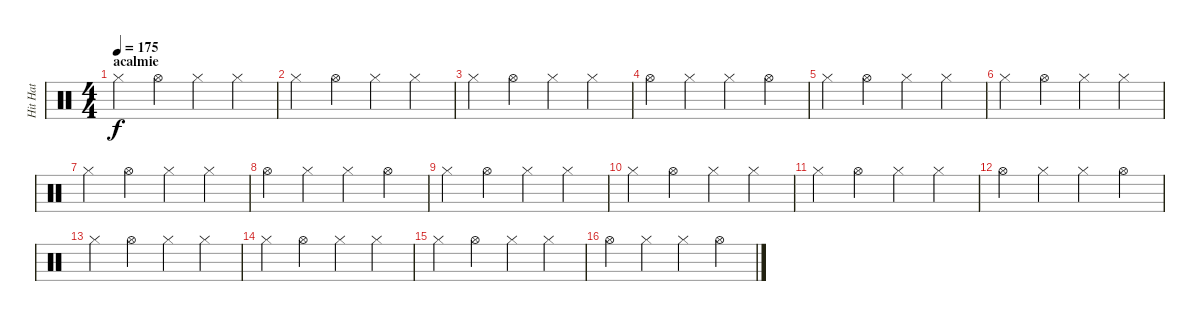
\track ("Hit Hat" "Hit Hat") {instrument percussion}
\staff {score}
\articulation defaults
\ts (4 4)
\section ("" "acalmie")
\tempo 175
\clef neutral
\ks c "Hi-Hat (closed)".4{dy f} "Hi-Hat (open)".4 "Hi-Hat (closed)".4 "Hi-Hat (closed)".4
|
"Hi-Hat (closed)".4 "Hi-Hat (open)".4 "Hi-Hat (closed)".4 "Hi-Hat (closed)".4 |
"Hi-Hat (closed)".4 "Hi-Hat (open)".4 "Hi-Hat (closed)".4 "Hi-Hat (closed)".4 |
"Hi-Hat (open)".4 "Hi-Hat (closed)".4 "Hi-Hat (closed)".4 "Hi-Hat (open)".4 |
"Hi-Hat (closed)".4 "Hi-Hat (open)".4 "Hi-Hat (closed)".4 "Hi-Hat (closed)".4 |
"Hi-Hat (closed)".4 "Hi-Hat (open)".4 "Hi-Hat (closed)".4 "Hi-Hat (closed)".4 |
"Hi-Hat (closed)".4 "Hi-Hat (open)".4 "Hi-Hat (closed)".4 "Hi-Hat (closed)".4 |
"Hi-Hat (open)".4 "Hi-Hat (closed)".4 "Hi-Hat (closed)".4 "Hi-Hat (open)".4 |
"Hi-Hat (closed)".4 "Hi-Hat (open)".4 "Hi-Hat (closed)".4 "Hi-Hat (closed)".4 |
"Hi-Hat (closed)".4 "Hi-Hat (open)".4 "Hi-Hat (closed)".4 "Hi-Hat (closed)".4 |
"Hi-Hat (closed)".4 "Hi-Hat (open)".4 "Hi-Hat (closed)".4 "Hi-Hat (closed)".4 |
"Hi-Hat (open)".4 "Hi-Hat (closed)".4 "Hi-Hat (closed)".4 "Hi-Hat (open)".4 |
"Hi-Hat (closed)".4 "Hi-Hat (open)".4 "Hi-Hat (closed)".4 "Hi-Hat (closed)".4 |
"Hi-Hat (closed)".4 "Hi-Hat (open)".4 "Hi-Hat (closed)".4 "Hi-Hat (closed)".4 |
"Hi-Hat (closed)".4 "Hi-Hat (open)".4 "Hi-Hat (closed)".4 "Hi-Hat (closed)".4 |
"Hi-Hat (open)".4 "Hi-Hat (closed)".4 "Hi-Hat (closed)".4 "Hi-Hat (open)".4
